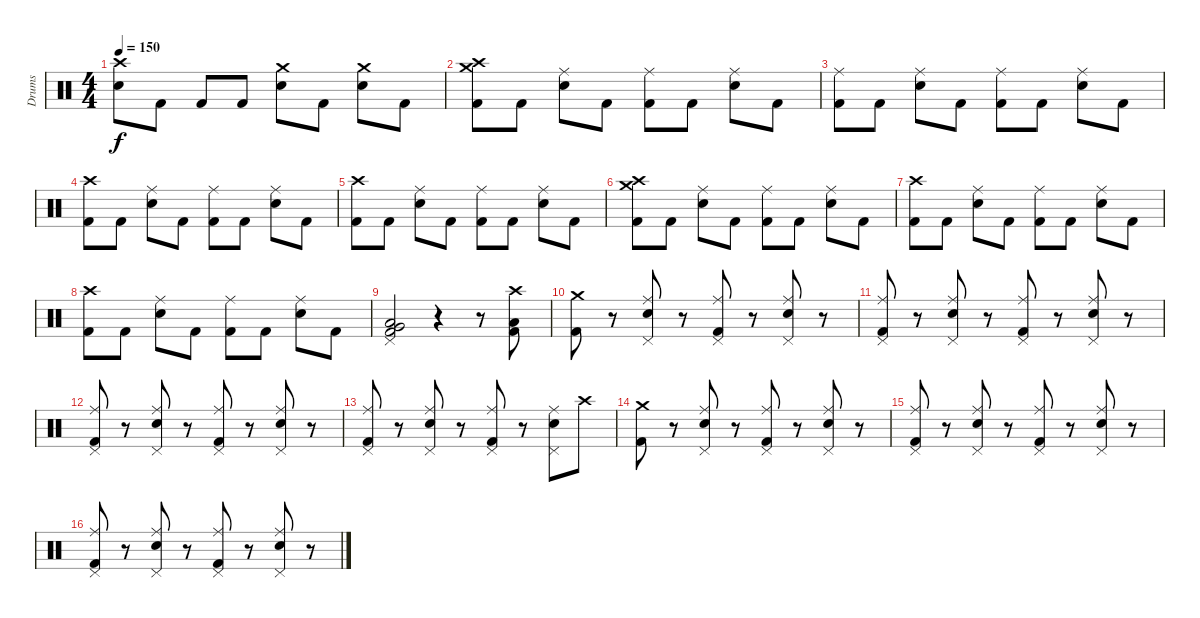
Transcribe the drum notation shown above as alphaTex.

\track ("Drums" "Drums") {instrument percussion}
\staff {score}
\articulation defaults
\ts (4 4)
\tempo 150
\clef neutral
\ks c
("Crash high (hit)" "Snare (hit) 2").8{dy f} "Kick (hit) 2".8 "Kick (hit) 2".8 "Kick (hit) 2".8 ("Crash medium (hit)" "Snare (hit) 2").8 "Kick (hit) 2".8 ("Crash medium (hit)" "Snare (hit) 2").8 "Kick (hit) 2".8 |
("Crash high (hit)" "Crash medium (hit)" "Kick (hit) 2").8 "Kick (hit) 2".8 ("Ride (middle)" "Snare (hit) 2").8 "Kick (hit) 2".8 ("Ride (middle)" "Kick (hit) 2").8 "Kick (hit) 2".8 ("Ride (middle)" "Snare (hit) 2").8 "Kick (hit) 2".8 |
("Ride (middle)" "Kick (hit) 2").8 "Kick (hit) 2".8 ("Ride (middle)" "Snare (hit) 2").8 "Kick (hit) 2".8 ("Ride (middle)" "Kick (hit) 2").8 "Kick (hit) 2".8 ("Ride (middle)" "Snare (hit) 2").8 "Kick (hit) 2".8 |
("Crash high (hit)" "Kick (hit) 2").8 "Kick (hit) 2".8 ("Ride (middle)" "Snare (hit) 2").8 "Kick (hit) 2".8 ("Ride (middle)" "Kick (hit) 2").8 "Kick (hit) 2".8 ("Ride (middle)" "Snare (hit) 2").8 "Kick (hit) 2".8 |
("Crash high (hit)" "Kick (hit) 2").8 "Kick (hit) 2".8 ("Ride (middle)" "Snare (hit) 2").8 "Kick (hit) 2".8 ("Ride (middle)" "Kick (hit) 2").8 "Kick (hit) 2".8 ("Ride (middle)" "Snare (hit) 2").8 "Kick (hit) 2".8 |
("Crash high (hit)" "Crash medium (hit)" "Kick (hit) 2").8 "Kick (hit) 2".8 ("Ride (middle)" "Snare (hit) 2").8 "Kick (hit) 2".8 ("Ride (middle)" "Kick (hit) 2").8 "Kick (hit) 2".8 ("Ride (middle)" "Snare (hit) 2").8 "Kick (hit) 2".8 |
("Crash high (hit)" "Kick (hit) 2").8 "Kick (hit) 2".8 ("Ride (middle)" "Snare (hit) 2").8 "Kick (hit) 2".8 ("Ride (middle)" "Kick (hit) 2").8 "Kick (hit) 2".8 ("Ride (middle)" "Snare (hit) 2").8 "Kick (hit) 2".8 |
("Crash high (hit)" "Kick (hit) 2").8 "Kick (hit) 2".8 ("Ride (middle)" "Snare (hit) 2").8 "Kick (hit) 2".8 ("Ride (middle)" "Kick (hit) 2").8 "Kick (hit) 2".8 ("Ride (middle)" "Snare (hit) 2").8 "Kick (hit) 2".8 |
("Pedal Hi-Hat (hit)" "Very Low Tom (hit)" "Low Tom (hit)" "Kick (hit) 2").2 r.4 r.8 ("Crash high (hit)" "Low Tom (hit)" "Kick (hit) 2").8 |
("Crash medium (hit)" "Kick (hit) 2").8 r.8 ("Pedal Hi-Hat (hit)" "Ride (middle)" "Snare (hit) 2").8 r.8 ("Pedal Hi-Hat (hit)" "Ride (middle)" "Kick (hit) 2").8 r.8 ("Pedal Hi-Hat (hit)" "Ride (middle)" "Snare (hit) 2").8 r.8 |
("Pedal Hi-Hat (hit)" "Ride (middle)" "Kick (hit) 2").8 r.8 ("Pedal Hi-Hat (hit)" "Ride (middle)" "Snare (hit) 2").8 r.8 ("Pedal Hi-Hat (hit)" "Ride (middle)" "Kick (hit) 2").8 r.8 ("Pedal Hi-Hat (hit)" "Ride (middle)" "Snare (hit) 2").8 r.8 |
("Pedal Hi-Hat (hit)" "Ride (middle)" "Kick (hit) 2").8 r.8 ("Pedal Hi-Hat (hit)" "Ride (middle)" "Snare (hit) 2").8 r.8 ("Pedal Hi-Hat (hit)" "Ride (middle)" "Kick (hit) 2").8 r.8 ("Pedal Hi-Hat (hit)" "Ride (middle)" "Snare (hit) 2").8 r.8 |
("Pedal Hi-Hat (hit)" "Ride (middle)" "Kick (hit) 2").8 r.8 ("Pedal Hi-Hat (hit)" "Ride (middle)" "Snare (hit) 2").8 r.8 ("Pedal Hi-Hat (hit)" "Ride (middle)" "Kick (hit) 2").8 r.8 ("Pedal Hi-Hat (hit)" "Ride (middle)" "Snare (hit) 2").8 "Crash high (hit)".8 |
("Crash medium (hit)" "Kick (hit) 2").8 r.8 ("Pedal Hi-Hat (hit)" "Ride (middle)" "Snare (hit) 2").8 r.8 ("Pedal Hi-Hat (hit)" "Ride (middle)" "Kick (hit) 2").8 r.8 ("Pedal Hi-Hat (hit)" "Ride (middle)" "Snare (hit) 2").8 r.8 |
("Pedal Hi-Hat (hit)" "Ride (middle)" "Kick (hit) 2").8 r.8 ("Pedal Hi-Hat (hit)" "Ride (middle)" "Snare (hit) 2").8 r.8 ("Pedal Hi-Hat (hit)" "Ride (middle)" "Kick (hit) 2").8 r.8 ("Pedal Hi-Hat (hit)" "Ride (middle)" "Snare (hit) 2").8 r.8 |
("Pedal Hi-Hat (hit)" "Ride (middle)" "Kick (hit) 2").8 r.8 ("Pedal Hi-Hat (hit)" "Ride (middle)" "Snare (hit) 2").8 r.8 ("Pedal Hi-Hat (hit)" "Ride (middle)" "Kick (hit) 2").8 r.8 ("Pedal Hi-Hat (hit)" "Ride (middle)" "Snare (hit) 2").8 r.8
